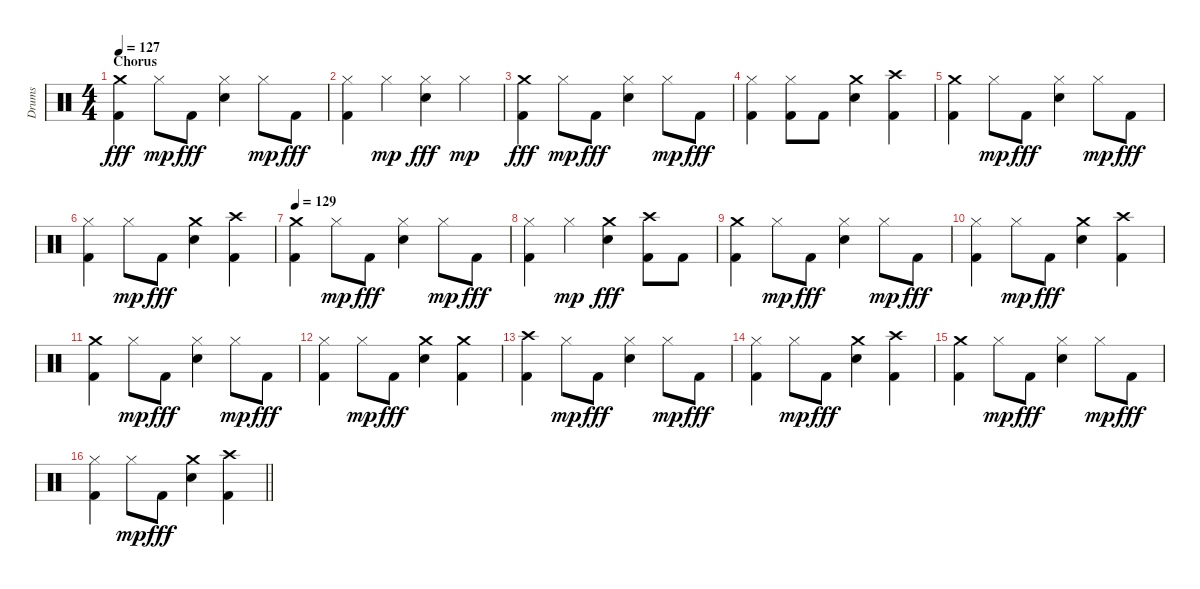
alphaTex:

\track ("Drums" "Drums") {instrument percussion}
\staff {score}
\articulation defaults
\ts (4 4)
\section ("" "Chorus")
\tempo 127
\clef neutral
\ks c
("Crash medium (hit)" "Kick (hit) 2").4{dy fff} "Hi-Hat (closed)".8{dy mp} "Kick (hit) 2".8{dy fff} ("Hi-Hat (closed)" "Electric Snare (hit)").4 "Hi-Hat (closed)".8{dy mp} "Kick (hit) 2".8{dy fff} |
("Hi-Hat (closed)" "Kick (hit) 2").4 "Hi-Hat (closed)".4{dy mp} ("Hi-Hat (closed)" "Electric Snare (hit)").4{dy fff} "Hi-Hat (closed)".4{dy mp} |
("Crash medium (hit)" "Kick (hit) 2").4{dy fff} "Hi-Hat (closed)".8{dy mp} "Kick (hit) 2".8{dy fff} ("Hi-Hat (closed)" "Electric Snare (hit)").4 "Hi-Hat (closed)".8{dy mp} "Kick (hit) 2".8{dy fff} |
("Hi-Hat (closed)" "Kick (hit) 2").4 ("Hi-Hat (closed)" "Kick (hit) 2").8 "Kick (hit) 2".8 ("Crash medium (hit)" "Electric Snare (hit)").4 ("Crash high (hit)" "Kick (hit) 2").4 |
("Crash medium (hit)" "Kick (hit) 2").4 "Hi-Hat (closed)".8{dy mp} "Kick (hit) 2".8{dy fff} ("Hi-Hat (closed)" "Electric Snare (hit)").4 "Hi-Hat (closed)".8{dy mp} "Kick (hit) 2".8{dy fff} |
("Hi-Hat (closed)" "Kick (hit) 2").4 "Hi-Hat (closed)".8{dy mp} "Kick (hit) 2".8{dy fff} ("Crash medium (hit)" "Electric Snare (hit)").4 ("Crash high (hit)" "Kick (hit) 2").4 |
\tempo 129
("Crash medium (hit)" "Kick (hit) 2").4 "Hi-Hat (closed)".8{dy mp} "Kick (hit) 2".8{dy fff} ("Hi-Hat (closed)" "Electric Snare (hit)").4 "Hi-Hat (closed)".8{dy mp} "Kick (hit) 2".8{dy fff} |
("Hi-Hat (closed)" "Kick (hit) 2").4 "Hi-Hat (closed)".4{dy mp} ("Crash medium (hit)" "Electric Snare (hit)").4{dy fff} ("Crash high (hit)" "Kick (hit) 2").8 "Kick (hit) 2".8 |
("Crash medium (hit)" "Kick (hit) 2").4 "Hi-Hat (closed)".8{dy mp} "Kick (hit) 2".8{dy fff} ("Hi-Hat (closed)" "Electric Snare (hit)").4 "Hi-Hat (closed)".8{dy mp} "Kick (hit) 2".8{dy fff} |
("Hi-Hat (closed)" "Kick (hit) 2").4 "Hi-Hat (closed)".8{dy mp} "Kick (hit) 2".8{dy fff} ("Crash medium (hit)" "Electric Snare (hit)").4 ("Crash high (hit)" "Kick (hit) 2").4 |
("Crash medium (hit)" "Kick (hit) 2").4 "Hi-Hat (closed)".8{dy mp} "Kick (hit) 2".8{dy fff} ("Hi-Hat (closed)" "Electric Snare (hit)").4 "Hi-Hat (closed)".8{dy mp} "Kick (hit) 2".8{dy fff} |
("Hi-Hat (closed)" "Kick (hit) 2").4 "Hi-Hat (closed)".8{dy mp} "Kick (hit) 2".8{dy fff} ("Crash medium (hit)" "Electric Snare (hit)").4 ("Crash medium (hit)" "Kick (hit) 2").4 |
("Crash high (hit)" "Kick (hit) 2").4 "Hi-Hat (closed)".8{dy mp} "Kick (hit) 2".8{dy fff} ("Hi-Hat (closed)" "Electric Snare (hit)").4 "Hi-Hat (closed)".8{dy mp} "Kick (hit) 2".8{dy fff} |
("Hi-Hat (closed)" "Kick (hit) 2").4 "Hi-Hat (closed)".8{dy mp} "Kick (hit) 2".8{dy fff} ("Crash medium (hit)" "Electric Snare (hit)").4 ("Crash high (hit)" "Kick (hit) 2").4 |
("Crash medium (hit)" "Kick (hit) 2").4 "Hi-Hat (closed)".8{dy mp} "Kick (hit) 2".8{dy fff} ("Hi-Hat (closed)" "Electric Snare (hit)").4 "Hi-Hat (closed)".8{dy mp} "Kick (hit) 2".8{dy fff} |
\barLineRight lightlight
("Hi-Hat (closed)" "Kick (hit) 2").4 "Hi-Hat (closed)".8{dy mp} "Kick (hit) 2".8{dy fff} ("Crash medium (hit)" "Electric Snare (hit)").4 ("Crash high (hit)" "Kick (hit) 2").4
